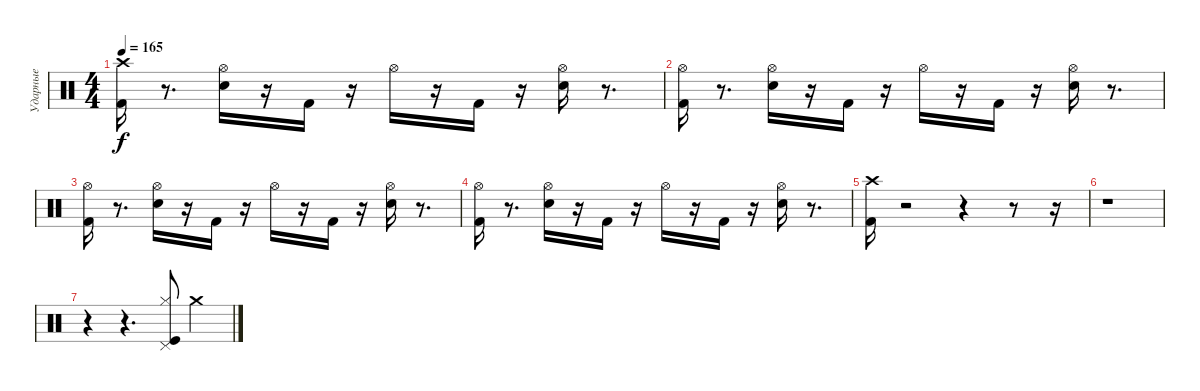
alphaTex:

\track ("Ударные" "Ударные") {instrument percussion}
\staff {score}
\articulation defaults
\ts (4 4)
\tempo 165
\clef neutral
\ks c
("Kick (hit) 2" "Crash high (hit)").16{dy f} r.8{d} ("Hi-Hat (open)" "Electric Snare (hit)").16 r.16 "Kick (hit) 2".16 r.16 "Hi-Hat (open)".16 r.16 "Kick (hit) 2".16 r.16 ("Electric Snare (hit)" "Hi-Hat (open)").16 r.8{d} |
("Kick (hit) 2" "Hi-Hat (open)").16 r.8{d} ("Hi-Hat (open)" "Electric Snare (hit)").16 r.16 "Kick (hit) 2".16 r.16 "Hi-Hat (open)".16 r.16 "Kick (hit) 2".16 r.16 ("Electric Snare (hit)" "Hi-Hat (open)").16 r.8{d} |
("Kick (hit) 2" "Hi-Hat (open)").16 r.8{d} ("Electric Snare (hit)" "Hi-Hat (open)").16 r.16 "Kick (hit) 2".16 r.16 "Hi-Hat (open)".16 r.16 "Kick (hit) 2".16 r.16 ("Electric Snare (hit)" "Hi-Hat (open)").16 r.8{d} |
("Kick (hit) 2" "Hi-Hat (open)").16 r.8{d} ("Electric Snare (hit)" "Hi-Hat (open)").16 r.16 "Kick (hit) 2".16 r.16 "Hi-Hat (open)".16 r.16 "Kick (hit) 2".16 r.16 ("Electric Snare (hit)" "Hi-Hat (open)").16 r.8{d} |
("Kick (hit) 2" "Crash high (hit)").16 r.2 r.4 r.8 r.16 |
r.1 |
r.4 r.4{d} ("Kick (hit)" "Hi-Hat (closed)" "Pedal Hi-Hat (hit)").8 "Crash medium (hit)".4
